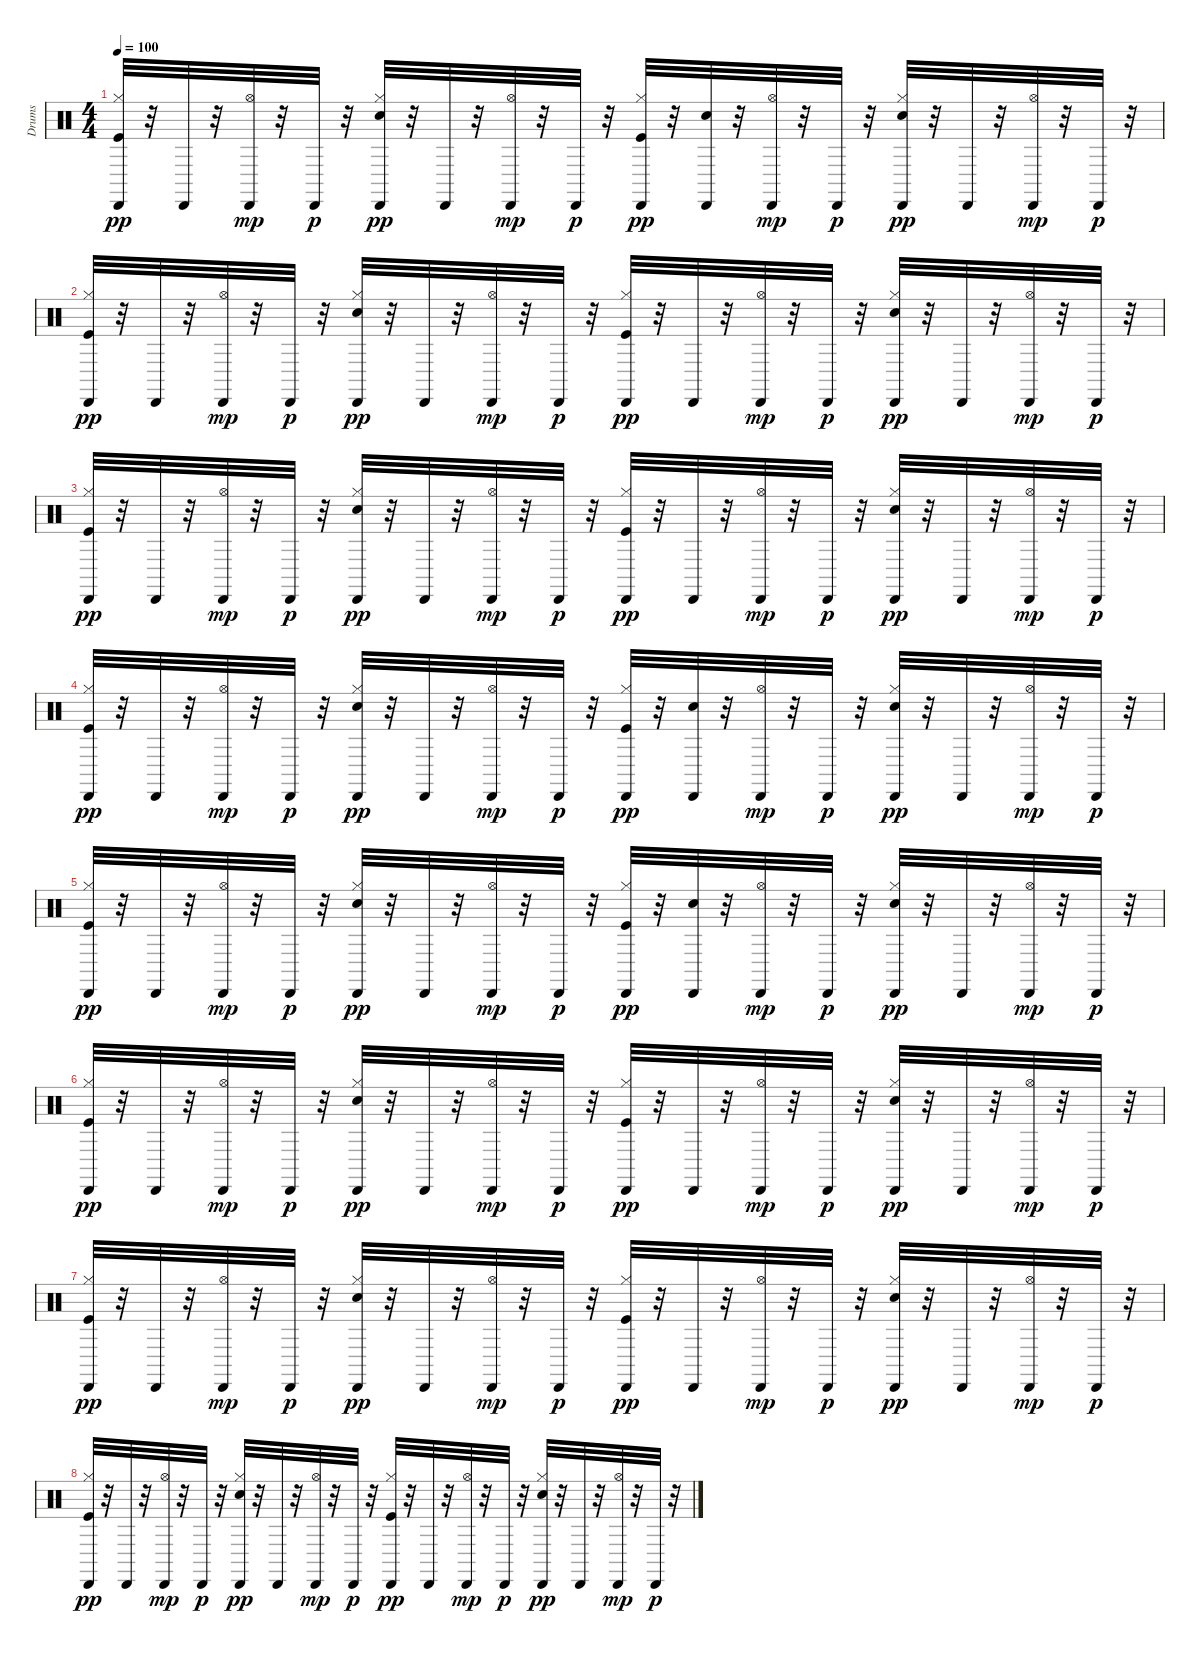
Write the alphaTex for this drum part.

\track ("Drums" "Drums") {instrument percussion}
\staff {score}
\articulation defaults
\ts (4 4)
\tempo 100
\clef neutral
\ks c
("Kick (hit)" "Hi-Hat (closed)" "Cabasa (hit)").32{dy pp} r.32 "Cabasa (hit)".32 r.32 ("Hi-Hat (open)" "Cabasa (hit)").32{dy mp} r.32 "Cabasa (hit)".32{dy p} r.32 ("Electric Snare (hit)" "Hi-Hat (closed)" "Cabasa (hit)").32{dy pp} r.32 "Cabasa (hit)".32 r.32 ("Hi-Hat (open)" "Cabasa (hit)").32{dy mp} r.32 "Cabasa (hit)".32{dy p} r.32 ("Kick (hit)" "Hi-Hat (closed)" "Cabasa (hit)").32{dy pp} r.32 ("Electric Snare (hit)" "Cabasa (hit)").32 r.32 ("Hi-Hat (open)" "Cabasa (hit)").32{dy mp} r.32 "Cabasa (hit)".32{dy p} r.32 ("Electric Snare (hit)" "Hi-Hat (closed)" "Cabasa (hit)").32{dy pp} r.32 "Cabasa (hit)".32 r.32 ("Hi-Hat (open)" "Cabasa (hit)").32{dy mp} r.32 "Cabasa (hit)".32{dy p} r.32 |
("Kick (hit)" "Hi-Hat (closed)" "Cabasa (hit)").32{dy pp} r.32 "Cabasa (hit)".32 r.32 ("Hi-Hat (open)" "Cabasa (hit)").32{dy mp} r.32 "Cabasa (hit)".32{dy p} r.32 ("Electric Snare (hit)" "Hi-Hat (closed)" "Cabasa (hit)").32{dy pp} r.32 "Cabasa (hit)".32 r.32 ("Hi-Hat (open)" "Cabasa (hit)").32{dy mp} r.32 "Cabasa (hit)".32{dy p} r.32 ("Kick (hit)" "Hi-Hat (closed)" "Cabasa (hit)").32{dy pp} r.32 "Cabasa (hit)".32 r.32 ("Hi-Hat (open)" "Cabasa (hit)").32{dy mp} r.32 "Cabasa (hit)".32{dy p} r.32 ("Electric Snare (hit)" "Hi-Hat (closed)" "Cabasa (hit)").32{dy pp} r.32 "Cabasa (hit)".32 r.32 ("Hi-Hat (open)" "Cabasa (hit)").32{dy mp} r.32 "Cabasa (hit)".32{dy p} r.32 |
("Kick (hit)" "Hi-Hat (closed)" "Cabasa (hit)").32{dy pp} r.32 "Cabasa (hit)".32 r.32 ("Hi-Hat (open)" "Cabasa (hit)").32{dy mp} r.32 "Cabasa (hit)".32{dy p} r.32 ("Electric Snare (hit)" "Hi-Hat (closed)" "Cabasa (hit)").32{dy pp} r.32 "Cabasa (hit)".32 r.32 ("Hi-Hat (open)" "Cabasa (hit)").32{dy mp} r.32 "Cabasa (hit)".32{dy p} r.32 ("Kick (hit)" "Hi-Hat (closed)" "Cabasa (hit)").32{dy pp} r.32 "Cabasa (hit)".32 r.32 ("Hi-Hat (open)" "Cabasa (hit)").32{dy mp} r.32 "Cabasa (hit)".32{dy p} r.32 ("Electric Snare (hit)" "Hi-Hat (closed)" "Cabasa (hit)").32{dy pp} r.32 "Cabasa (hit)".32 r.32 ("Hi-Hat (open)" "Cabasa (hit)").32{dy mp} r.32 "Cabasa (hit)".32{dy p} r.32 |
("Kick (hit)" "Hi-Hat (closed)" "Cabasa (hit)").32{dy pp} r.32 "Cabasa (hit)".32 r.32 ("Hi-Hat (open)" "Cabasa (hit)").32{dy mp} r.32 "Cabasa (hit)".32{dy p} r.32 ("Electric Snare (hit)" "Hi-Hat (closed)" "Cabasa (hit)").32{dy pp} r.32 "Cabasa (hit)".32 r.32 ("Hi-Hat (open)" "Cabasa (hit)").32{dy mp} r.32 "Cabasa (hit)".32{dy p} r.32 ("Kick (hit)" "Hi-Hat (closed)" "Cabasa (hit)").32{dy pp} r.32 ("Electric Snare (hit)" "Cabasa (hit)").32 r.32 ("Hi-Hat (open)" "Cabasa (hit)").32{dy mp} r.32 "Cabasa (hit)".32{dy p} r.32 ("Electric Snare (hit)" "Hi-Hat (closed)" "Cabasa (hit)").32{dy pp} r.32 "Cabasa (hit)".32 r.32 ("Hi-Hat (open)" "Cabasa (hit)").32{dy mp} r.32 "Cabasa (hit)".32{dy p} r.32 |
("Kick (hit)" "Hi-Hat (closed)" "Cabasa (hit)").32{dy pp} r.32 "Cabasa (hit)".32 r.32 ("Hi-Hat (open)" "Cabasa (hit)").32{dy mp} r.32 "Cabasa (hit)".32{dy p} r.32 ("Electric Snare (hit)" "Hi-Hat (closed)" "Cabasa (hit)").32{dy pp} r.32 "Cabasa (hit)".32 r.32 ("Hi-Hat (open)" "Cabasa (hit)").32{dy mp} r.32 "Cabasa (hit)".32{dy p} r.32 ("Kick (hit)" "Hi-Hat (closed)" "Cabasa (hit)").32{dy pp} r.32 ("Electric Snare (hit)" "Cabasa (hit)").32 r.32 ("Hi-Hat (open)" "Cabasa (hit)").32{dy mp} r.32 "Cabasa (hit)".32{dy p} r.32 ("Electric Snare (hit)" "Hi-Hat (closed)" "Cabasa (hit)").32{dy pp} r.32 "Cabasa (hit)".32 r.32 ("Hi-Hat (open)" "Cabasa (hit)").32{dy mp} r.32 "Cabasa (hit)".32{dy p} r.32 |
("Kick (hit)" "Hi-Hat (closed)" "Cabasa (hit)").32{dy pp} r.32 "Cabasa (hit)".32 r.32 ("Hi-Hat (open)" "Cabasa (hit)").32{dy mp} r.32 "Cabasa (hit)".32{dy p} r.32 ("Electric Snare (hit)" "Hi-Hat (closed)" "Cabasa (hit)").32{dy pp} r.32 "Cabasa (hit)".32 r.32 ("Hi-Hat (open)" "Cabasa (hit)").32{dy mp} r.32 "Cabasa (hit)".32{dy p} r.32 ("Kick (hit)" "Hi-Hat (closed)" "Cabasa (hit)").32{dy pp} r.32 "Cabasa (hit)".32 r.32 ("Hi-Hat (open)" "Cabasa (hit)").32{dy mp} r.32 "Cabasa (hit)".32{dy p} r.32 ("Electric Snare (hit)" "Hi-Hat (closed)" "Cabasa (hit)").32{dy pp} r.32 "Cabasa (hit)".32 r.32 ("Hi-Hat (open)" "Cabasa (hit)").32{dy mp} r.32 "Cabasa (hit)".32{dy p} r.32 |
("Kick (hit)" "Hi-Hat (closed)" "Cabasa (hit)").32{dy pp} r.32 "Cabasa (hit)".32 r.32 ("Hi-Hat (open)" "Cabasa (hit)").32{dy mp} r.32 "Cabasa (hit)".32{dy p} r.32 ("Electric Snare (hit)" "Hi-Hat (closed)" "Cabasa (hit)").32{dy pp} r.32 "Cabasa (hit)".32 r.32 ("Hi-Hat (open)" "Cabasa (hit)").32{dy mp} r.32 "Cabasa (hit)".32{dy p} r.32 ("Kick (hit)" "Hi-Hat (closed)" "Cabasa (hit)").32{dy pp} r.32 "Cabasa (hit)".32 r.32 ("Hi-Hat (open)" "Cabasa (hit)").32{dy mp} r.32 "Cabasa (hit)".32{dy p} r.32 ("Electric Snare (hit)" "Hi-Hat (closed)" "Cabasa (hit)").32{dy pp} r.32 "Cabasa (hit)".32 r.32 ("Hi-Hat (open)" "Cabasa (hit)").32{dy mp} r.32 "Cabasa (hit)".32{dy p} r.32 |
("Kick (hit)" "Hi-Hat (closed)" "Cabasa (hit)").32{dy pp} r.32 "Cabasa (hit)".32 r.32 ("Hi-Hat (open)" "Cabasa (hit)").32{dy mp} r.32 "Cabasa (hit)".32{dy p} r.32 ("Electric Snare (hit)" "Hi-Hat (closed)" "Cabasa (hit)").32{dy pp} r.32 "Cabasa (hit)".32 r.32 ("Hi-Hat (open)" "Cabasa (hit)").32{dy mp} r.32 "Cabasa (hit)".32{dy p} r.32 ("Kick (hit)" "Hi-Hat (closed)" "Cabasa (hit)").32{dy pp} r.32 "Cabasa (hit)".32 r.32 ("Hi-Hat (open)" "Cabasa (hit)").32{dy mp} r.32 "Cabasa (hit)".32{dy p} r.32 ("Electric Snare (hit)" "Hi-Hat (closed)" "Cabasa (hit)").32{dy pp} r.32 "Cabasa (hit)".32 r.32 ("Hi-Hat (open)" "Cabasa (hit)").32{dy mp} r.32 "Cabasa (hit)".32{dy p} r.32
